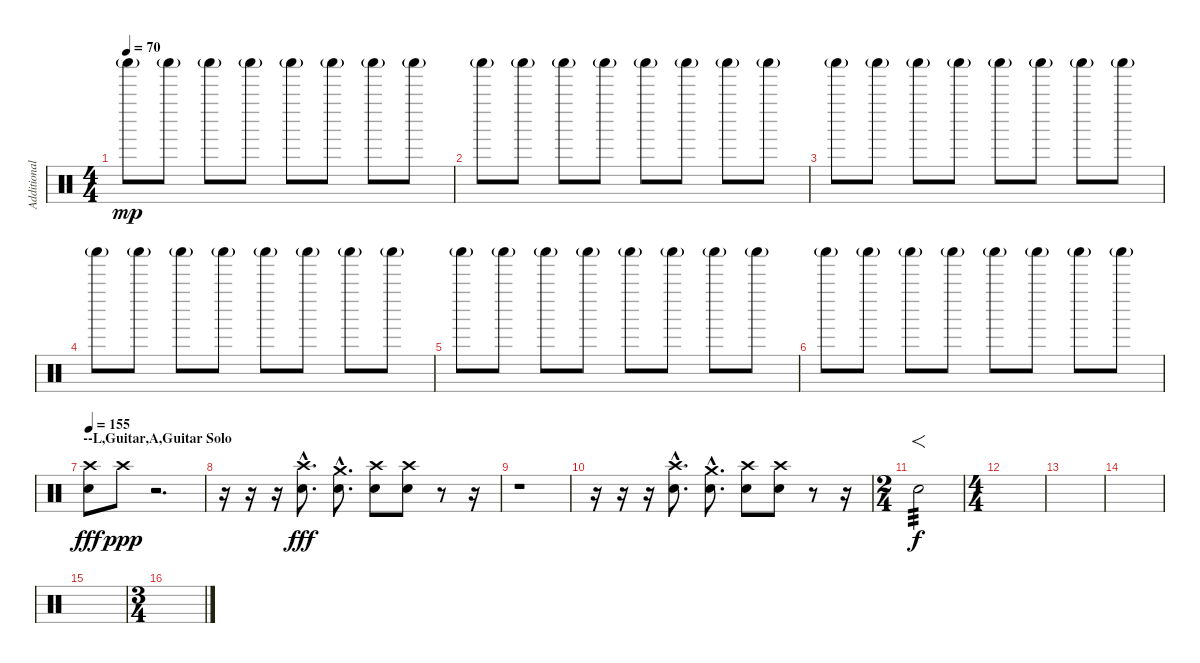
\track ("Additional Drums" "Additional") {instrument percussion}
\staff {score}
\articulation defaults
\ts (4 4)
\tempo 70
\clef neutral
\ks c "Shaker (hit)"{g}.8{dy mp} "Shaker (hit)"{g}.8 "Shaker (hit)"{g}.8 "Shaker (hit)"{g}.8 "Shaker (hit)"{g}.8 "Shaker (hit)"{g}.8 "Shaker (hit)"{g}.8 "Shaker (hit)"{g}.8
|
"Shaker (hit)"{g}.8 "Shaker (hit)"{g}.8 "Shaker (hit)"{g}.8 "Shaker (hit)"{g}.8 "Shaker (hit)"{g}.8 "Shaker (hit)"{g}.8 "Shaker (hit)"{g}.8 "Shaker (hit)"{g}.8 |
"Shaker (hit)"{g}.8 "Shaker (hit)"{g}.8 "Shaker (hit)"{g}.8 "Shaker (hit)"{g}.8 "Shaker (hit)"{g}.8 "Shaker (hit)"{g}.8 "Shaker (hit)"{g}.8 "Shaker (hit)"{g}.8 |
"Shaker (hit)"{g}.8 "Shaker (hit)"{g}.8 "Shaker (hit)"{g}.8 "Shaker (hit)"{g}.8 "Shaker (hit)"{g}.8 "Shaker (hit)"{g}.8 "Shaker (hit)"{g}.8 "Shaker (hit)"{g}.8 |
"Shaker (hit)"{g}.8 "Shaker (hit)"{g}.8 "Shaker (hit)"{g}.8 "Shaker (hit)"{g}.8 "Shaker (hit)"{g}.8 "Shaker (hit)"{g}.8 "Shaker (hit)"{g}.8 "Shaker (hit)"{g}.8 |
"Shaker (hit)"{g}.8 "Shaker (hit)"{g}.8 "Shaker (hit)"{g}.8 "Shaker (hit)"{g}.8 "Shaker (hit)"{g}.8 "Shaker (hit)"{g}.8 "Shaker (hit)"{g}.8 "Shaker (hit)"{g}.8 |
\section ("" "--L,Guitar,A,Guitar Solo")
\tempo 155
("Crash high (hit)" "Electric Snare (hit)").8{dy fff} "Crash high (hit)".8{dy ppp} r.2{d} |
r.16 r.16 r.16 ("Crash high (hit)"{hac} "Electric Snare (hit)"{hac}).8{d dy fff} ("Crash medium (hit)"{hac} "Electric Snare (hit)"{hac}).8{d} ("Crash high (hit)" "Electric Snare (hit)").8 ("Crash high (hit)" "Electric Snare (hit)").8 r.8 r.16 |
r.1 |
r.16 r.16 r.16 ("Crash high (hit)"{hac} "Electric Snare (hit)"{hac}).8{d} ("Crash medium (hit)"{hac} "Electric Snare (hit)"{hac}).8{d} ("Crash high (hit)" "Electric Snare (hit)").8 ("Crash high (hit)" "Electric Snare (hit)").8 r.8 r.16 |
\ts (2 4)
"Electric Snare (hit)".2{f tp 3 dy f} |
\ts (4 4)
|
|
|
|
\ts (3 4)
